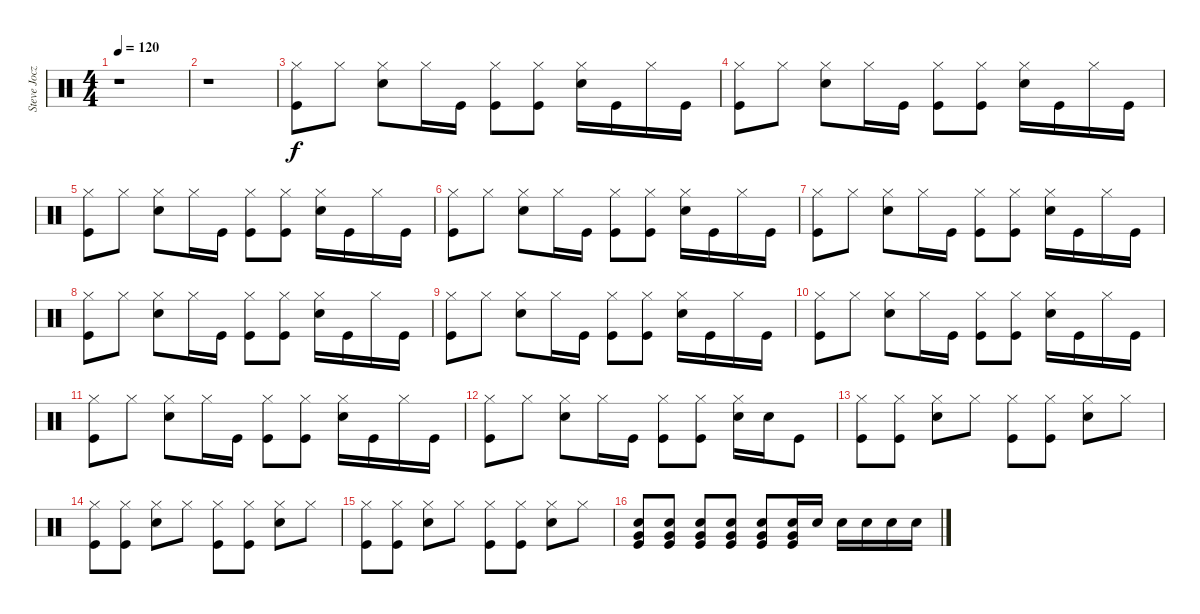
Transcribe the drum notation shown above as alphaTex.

\track ("Steve Jocz (STEVO)" "Steve Jocz") {instrument percussion}
\staff {score}
\articulation defaults
\ts (4 4)
\tempo 120
\clef neutral
\ks c
r.1{dy f} |
r.1 |
("Hi-Hat (closed)" "Kick (hit)").8 "Hi-Hat (closed)".8 ("Hi-Hat (closed)" "Snare (hit) 2").8 "Hi-Hat (closed)".16 "Kick (hit)".16 ("Hi-Hat (closed)" "Kick (hit)").8 ("Hi-Hat (closed)" "Kick (hit)").8 ("Hi-Hat (closed)" "Snare (hit) 2").16 "Kick (hit)".16 "Hi-Hat (closed)".16 "Kick (hit)".16 |
("Hi-Hat (closed)" "Kick (hit)").8 "Hi-Hat (closed)".8 ("Hi-Hat (closed)" "Snare (hit) 2").8 "Hi-Hat (closed)".16 "Kick (hit)".16 ("Hi-Hat (closed)" "Kick (hit)").8 ("Hi-Hat (closed)" "Kick (hit)").8 ("Hi-Hat (closed)" "Snare (hit) 2").16 "Kick (hit)".16 "Hi-Hat (closed)".16 "Kick (hit)".16 |
("Hi-Hat (closed)" "Kick (hit)").8 "Hi-Hat (closed)".8 ("Hi-Hat (closed)" "Snare (hit) 2").8 "Hi-Hat (closed)".16 "Kick (hit)".16 ("Hi-Hat (closed)" "Kick (hit)").8 ("Hi-Hat (closed)" "Kick (hit)").8 ("Hi-Hat (closed)" "Snare (hit) 2").16 "Kick (hit)".16 "Hi-Hat (closed)".16 "Kick (hit)".16 |
("Hi-Hat (closed)" "Kick (hit)").8 "Hi-Hat (closed)".8 ("Hi-Hat (closed)" "Snare (hit) 2").8 "Hi-Hat (closed)".16 "Kick (hit)".16 ("Hi-Hat (closed)" "Kick (hit)").8 ("Hi-Hat (closed)" "Kick (hit)").8 ("Hi-Hat (closed)" "Snare (hit) 2").16 "Kick (hit)".16 "Hi-Hat (closed)".16 "Kick (hit)".16 |
("Hi-Hat (closed)" "Kick (hit)").8 "Hi-Hat (closed)".8 ("Hi-Hat (closed)" "Snare (hit) 2").8 "Hi-Hat (closed)".16 "Kick (hit)".16 ("Hi-Hat (closed)" "Kick (hit)").8 ("Hi-Hat (closed)" "Kick (hit)").8 ("Hi-Hat (closed)" "Snare (hit) 2").16 "Kick (hit)".16 "Hi-Hat (closed)".16 "Kick (hit)".16 |
("Hi-Hat (closed)" "Kick (hit)").8 "Hi-Hat (closed)".8 ("Hi-Hat (closed)" "Snare (hit) 2").8 "Hi-Hat (closed)".16 "Kick (hit)".16 ("Hi-Hat (closed)" "Kick (hit)").8 ("Hi-Hat (closed)" "Kick (hit)").8 ("Hi-Hat (closed)" "Snare (hit) 2").16 "Kick (hit)".16 "Hi-Hat (closed)".16 "Kick (hit)".16 |
("Hi-Hat (closed)" "Kick (hit)").8 "Hi-Hat (closed)".8 ("Hi-Hat (closed)" "Snare (hit) 2").8 "Hi-Hat (closed)".16 "Kick (hit)".16 ("Hi-Hat (closed)" "Kick (hit)").8 ("Hi-Hat (closed)" "Kick (hit)").8 ("Hi-Hat (closed)" "Snare (hit) 2").16 "Kick (hit)".16 "Hi-Hat (closed)".16 "Kick (hit)".16 |
("Hi-Hat (closed)" "Kick (hit)").8 "Hi-Hat (closed)".8 ("Hi-Hat (closed)" "Snare (hit) 2").8 "Hi-Hat (closed)".16 "Kick (hit)".16 ("Hi-Hat (closed)" "Kick (hit)").8 ("Hi-Hat (closed)" "Kick (hit)").8 ("Hi-Hat (closed)" "Snare (hit) 2").16 "Kick (hit)".16 "Hi-Hat (closed)".16 "Kick (hit)".16 |
("Hi-Hat (closed)" "Kick (hit)").8 "Hi-Hat (closed)".8 ("Hi-Hat (closed)" "Snare (hit) 2").8 "Hi-Hat (closed)".16 "Kick (hit)".16 ("Hi-Hat (closed)" "Kick (hit)").8 ("Hi-Hat (closed)" "Kick (hit)").8 ("Hi-Hat (closed)" "Snare (hit) 2").16 "Kick (hit)".16 "Hi-Hat (closed)".16 "Kick (hit)".16 |
("Hi-Hat (closed)" "Kick (hit)").8 "Hi-Hat (closed)".8 ("Hi-Hat (closed)" "Snare (hit) 2").8 "Hi-Hat (closed)".16 "Kick (hit)".16 ("Hi-Hat (closed)" "Kick (hit)").8 ("Hi-Hat (closed)" "Kick (hit)").8 ("Hi-Hat (closed)" "Snare (hit) 2").16 "Snare (hit) 2".16 "Kick (hit)".8 |
("Hi-Hat (closed)" "Kick (hit)").8 ("Hi-Hat (closed)" "Kick (hit)").8 ("Hi-Hat (closed)" "Snare (hit) 2").8 "Hi-Hat (closed)".8 ("Hi-Hat (closed)" "Kick (hit)").8 ("Hi-Hat (closed)" "Kick (hit)").8 ("Hi-Hat (closed)" "Snare (hit) 2").8 "Hi-Hat (closed)".8 |
("Hi-Hat (closed)" "Kick (hit)").8 ("Hi-Hat (closed)" "Kick (hit)").8 ("Hi-Hat (closed)" "Snare (hit) 2").8 "Hi-Hat (closed)".8 ("Hi-Hat (closed)" "Kick (hit)").8 ("Hi-Hat (closed)" "Kick (hit)").8 ("Hi-Hat (closed)" "Snare (hit) 2").8 "Hi-Hat (closed)".8 |
("Hi-Hat (closed)" "Kick (hit)").8 ("Hi-Hat (closed)" "Kick (hit)").8 ("Hi-Hat (closed)" "Snare (hit) 2").8 "Hi-Hat (closed)".8 ("Hi-Hat (closed)" "Kick (hit)").8 ("Hi-Hat (closed)" "Kick (hit)").8 ("Hi-Hat (closed)" "Snare (hit) 2").8 "Hi-Hat (closed)".8 |
("Very Low Tom (hit)" "Snare (hit) 2" "Kick (hit)").8 ("Very Low Tom (hit)" "Snare (hit) 2" "Kick (hit)").8 ("Very Low Tom (hit)" "Snare (hit) 2" "Kick (hit)").8 ("Very Low Tom (hit)" "Snare (hit) 2" "Kick (hit)").8 ("Very Low Tom (hit)" "Snare (hit) 2" "Kick (hit)").8 ("Very Low Tom (hit)" "Snare (hit) 2" "Kick (hit)").16 "Snare (hit) 2".16 "Snare (hit) 2".16 "Snare (hit) 2".16 "Snare (hit) 2".16 "Snare (hit) 2".16
